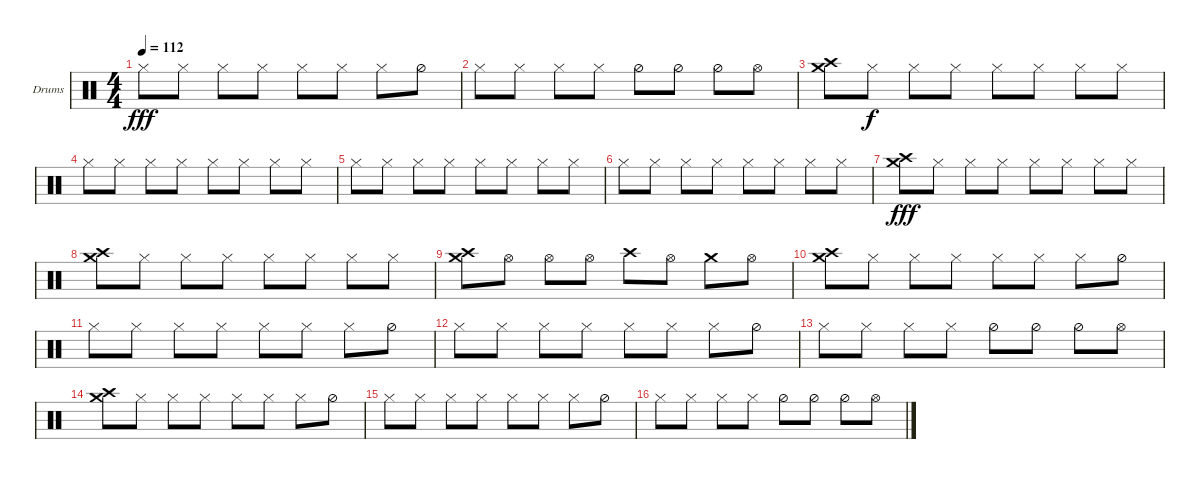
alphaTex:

\defaultSystemsLayout 4
\bracketExtendMode groupsimilarinstruments
\firstSystemTrackNameOrientation horizontal
\otherSystemsTrackNameOrientation horizontal
\track ("Helders" "Drums") {instrument percussion}
\staff {score}
\articulation defaults
\ts (4 4)
\tempo 112
\clef neutral
\ks c "Hi-Hat (closed)".8{dy fff} "Hi-Hat (closed)".8 "Hi-Hat (closed)".8 "Hi-Hat (closed)".8 "Hi-Hat (closed)".8 "Hi-Hat (closed)".8 "Hi-Hat (closed)".8 "Hi-Hat (half)".8
|
"Hi-Hat (closed)".8 "Hi-Hat (closed)".8 "Hi-Hat (closed)".8 "Hi-Hat (closed)".8 "Hi-Hat (half)".8 "Hi-Hat (half)".8 "Hi-Hat (half)".8 "Hi-Hat (open)".8 |
("Crash high (hit)" "Crash medium (hit)").8 "Hi-Hat (closed)".8{dy f} "Hi-Hat (closed)".8 "Hi-Hat (closed)".8 "Hi-Hat (closed)".8 "Hi-Hat (closed)".8 "Hi-Hat (closed)".8 "Hi-Hat (closed)".8 |
"Hi-Hat (closed)".8 "Hi-Hat (closed)".8 "Hi-Hat (closed)".8 "Hi-Hat (closed)".8 "Hi-Hat (closed)".8 "Hi-Hat (closed)".8 "Hi-Hat (closed)".8 "Hi-Hat (closed)".8 |
"Hi-Hat (closed)".8 "Hi-Hat (closed)".8 "Hi-Hat (closed)".8 "Hi-Hat (closed)".8 "Hi-Hat (closed)".8 "Hi-Hat (closed)".8 "Hi-Hat (closed)".8 "Hi-Hat (closed)".8 |
"Hi-Hat (closed)".8 "Hi-Hat (closed)".8 "Hi-Hat (closed)".8 "Hi-Hat (closed)".8 "Hi-Hat (closed)".8 "Hi-Hat (closed)".8 "Hi-Hat (closed)".8 "Hi-Hat (closed)".8 |
("Crash medium (hit)" "Crash high (hit)").8{dy fff} "Hi-Hat (closed)".8 "Hi-Hat (closed)".8 "Hi-Hat (closed)".8 "Hi-Hat (closed)".8 "Hi-Hat (closed)".8 "Hi-Hat (closed)".8 "Hi-Hat (closed)".8 |
("Crash high (hit)" "Crash medium (hit)").8 "Hi-Hat (closed)".8 "Hi-Hat (closed)".8 "Hi-Hat (closed)".8 "Hi-Hat (closed)".8 "Hi-Hat (closed)".8 "Hi-Hat (closed)".8 "Hi-Hat (closed)".8 |
("Crash high (hit)" "Crash medium (hit)").8 "Hi-Hat (open)".8 "Hi-Hat (open)".8 "Hi-Hat (open)".8 "Crash high (hit)".8 "Hi-Hat (open)".8 "Crash medium (hit)".8 "Hi-Hat (open)".8 |
("Crash high (hit)" "Crash medium (hit)").8 "Hi-Hat (closed)".8 "Hi-Hat (closed)".8 "Hi-Hat (closed)".8 "Hi-Hat (closed)".8 "Hi-Hat (closed)".8 "Hi-Hat (closed)".8 "Hi-Hat (half)".8 |
"Hi-Hat (closed)".8 "Hi-Hat (closed)".8 "Hi-Hat (closed)".8 "Hi-Hat (closed)".8 "Hi-Hat (closed)".8 "Hi-Hat (closed)".8 "Hi-Hat (closed)".8 "Hi-Hat (half)".8 |
"Hi-Hat (closed)".8 "Hi-Hat (closed)".8 "Hi-Hat (closed)".8 "Hi-Hat (closed)".8 "Hi-Hat (closed)".8 "Hi-Hat (closed)".8 "Hi-Hat (closed)".8 "Hi-Hat (half)".8 |
"Hi-Hat (closed)".8 "Hi-Hat (closed)".8 "Hi-Hat (closed)".8 "Hi-Hat (closed)".8 "Hi-Hat (half)".8 "Hi-Hat (half)".8 "Hi-Hat (half)".8 "Hi-Hat (open)".8 |
("Crash high (hit)" "Crash medium (hit)").8 "Hi-Hat (closed)".8 "Hi-Hat (closed)".8 "Hi-Hat (closed)".8 "Hi-Hat (closed)".8 "Hi-Hat (closed)".8 "Hi-Hat (closed)".8 "Hi-Hat (half)".8 |
"Hi-Hat (closed)".8 "Hi-Hat (closed)".8 "Hi-Hat (closed)".8 "Hi-Hat (closed)".8 "Hi-Hat (closed)".8 "Hi-Hat (closed)".8 "Hi-Hat (closed)".8 "Hi-Hat (half)".8 |
"Hi-Hat (closed)".8 "Hi-Hat (closed)".8 "Hi-Hat (closed)".8 "Hi-Hat (closed)".8 "Hi-Hat (half)".8 "Hi-Hat (half)".8 "Hi-Hat (half)".8 "Hi-Hat (open)".8
